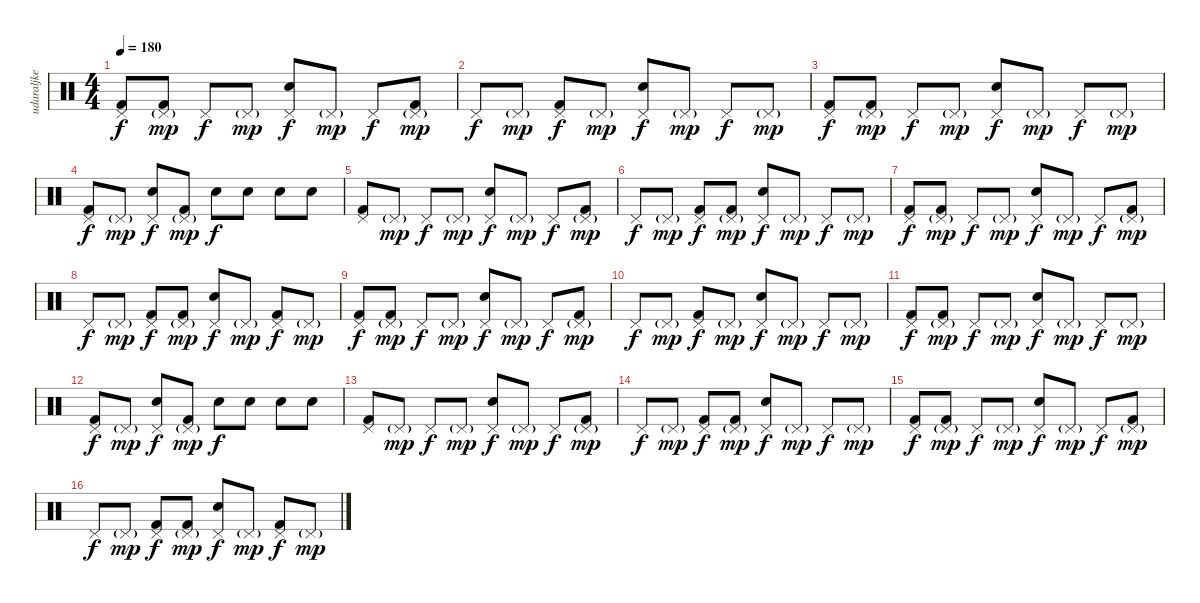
\track ("udaraljke" "udaraljke") {instrument percussion}
\staff {score}
\articulation defaults
\ts (4 4)
\tempo 180
\clef neutral
\ks c
("Pedal Hi-Hat (hit)" "Kick (hit) 2").8{dy f} ("Pedal Hi-Hat (hit)"{g} "Kick (hit) 2").8{dy mp} "Pedal Hi-Hat (hit)".8{dy f} "Pedal Hi-Hat (hit)"{g}.8{dy mp} ("Pedal Hi-Hat (hit)" "Snare (hit) 2").8{dy f} "Pedal Hi-Hat (hit)"{g}.8{dy mp} "Pedal Hi-Hat (hit)".8{dy f} ("Pedal Hi-Hat (hit)"{g} "Kick (hit) 2").8{dy mp} |
"Pedal Hi-Hat (hit)".8{dy f} "Pedal Hi-Hat (hit)"{g}.8{dy mp} ("Pedal Hi-Hat (hit)" "Kick (hit) 2").8{dy f} "Pedal Hi-Hat (hit)"{g}.8{dy mp} ("Pedal Hi-Hat (hit)" "Snare (hit) 2").8{dy f} "Pedal Hi-Hat (hit)"{g}.8{dy mp} "Pedal Hi-Hat (hit)".8{dy f} "Pedal Hi-Hat (hit)"{g}.8{dy mp} |
("Pedal Hi-Hat (hit)" "Kick (hit) 2").8{dy f} ("Pedal Hi-Hat (hit)"{g} "Kick (hit) 2").8{dy mp} "Pedal Hi-Hat (hit)".8{dy f} "Pedal Hi-Hat (hit)"{g}.8{dy mp} ("Pedal Hi-Hat (hit)" "Snare (hit) 2").8{dy f} "Pedal Hi-Hat (hit)"{g}.8{dy mp} "Pedal Hi-Hat (hit)".8{dy f} "Pedal Hi-Hat (hit)"{g}.8{dy mp} |
("Pedal Hi-Hat (hit)" "Kick (hit) 2").8{dy f} "Pedal Hi-Hat (hit)"{g}.8{dy mp} ("Pedal Hi-Hat (hit)" "Snare (hit) 2").8{dy f} ("Pedal Hi-Hat (hit)"{g} "Kick (hit) 2").8{dy mp} "Snare (hit) 2".8{dy f} "Snare (hit) 2".8 "Snare (hit) 2".8 "Snare (hit) 2".8 |
("Pedal Hi-Hat (hit)" "Kick (hit) 2").8 "Pedal Hi-Hat (hit)"{g}.8{dy mp} "Pedal Hi-Hat (hit)".8{dy f} "Pedal Hi-Hat (hit)"{g}.8{dy mp} ("Pedal Hi-Hat (hit)" "Snare (hit) 2").8{dy f} "Pedal Hi-Hat (hit)"{g}.8{dy mp} "Pedal Hi-Hat (hit)".8{dy f} ("Pedal Hi-Hat (hit)"{g} "Kick (hit) 2").8{dy mp} |
"Pedal Hi-Hat (hit)".8{dy f} "Pedal Hi-Hat (hit)"{g}.8{dy mp} ("Pedal Hi-Hat (hit)" "Kick (hit) 2").8{dy f} ("Pedal Hi-Hat (hit)"{g} "Kick (hit) 2").8{dy mp} ("Pedal Hi-Hat (hit)" "Snare (hit) 2").8{dy f} "Pedal Hi-Hat (hit)"{g}.8{dy mp} "Pedal Hi-Hat (hit)".8{dy f} "Pedal Hi-Hat (hit)"{g}.8{dy mp} |
("Pedal Hi-Hat (hit)" "Kick (hit) 2").8{dy f} ("Pedal Hi-Hat (hit)"{g} "Kick (hit) 2").8{dy mp} "Pedal Hi-Hat (hit)".8{dy f} "Pedal Hi-Hat (hit)"{g}.8{dy mp} ("Pedal Hi-Hat (hit)" "Snare (hit) 2").8{dy f} "Pedal Hi-Hat (hit)"{g}.8{dy mp} "Pedal Hi-Hat (hit)".8{dy f} ("Pedal Hi-Hat (hit)"{g} "Kick (hit) 2").8{dy mp} |
"Pedal Hi-Hat (hit)".8{dy f} "Pedal Hi-Hat (hit)"{g}.8{dy mp} ("Pedal Hi-Hat (hit)" "Kick (hit) 2").8{dy f} ("Pedal Hi-Hat (hit)"{g} "Kick (hit) 2").8{dy mp} ("Pedal Hi-Hat (hit)" "Snare (hit) 2").8{dy f} "Pedal Hi-Hat (hit)"{g}.8{dy mp} ("Pedal Hi-Hat (hit)" "Kick (hit) 2").8{dy f} "Pedal Hi-Hat (hit)"{g}.8{dy mp} |
("Pedal Hi-Hat (hit)" "Kick (hit) 2").8{dy f} ("Pedal Hi-Hat (hit)"{g} "Kick (hit) 2").8{dy mp} "Pedal Hi-Hat (hit)".8{dy f} "Pedal Hi-Hat (hit)"{g}.8{dy mp} ("Pedal Hi-Hat (hit)" "Snare (hit) 2").8{dy f} "Pedal Hi-Hat (hit)"{g}.8{dy mp} "Pedal Hi-Hat (hit)".8{dy f} ("Pedal Hi-Hat (hit)"{g} "Kick (hit) 2").8{dy mp} |
"Pedal Hi-Hat (hit)".8{dy f} "Pedal Hi-Hat (hit)"{g}.8{dy mp} ("Pedal Hi-Hat (hit)" "Kick (hit) 2").8{dy f} "Pedal Hi-Hat (hit)"{g}.8{dy mp} ("Pedal Hi-Hat (hit)" "Snare (hit) 2").8{dy f} "Pedal Hi-Hat (hit)"{g}.8{dy mp} "Pedal Hi-Hat (hit)".8{dy f} "Pedal Hi-Hat (hit)"{g}.8{dy mp} |
("Pedal Hi-Hat (hit)" "Kick (hit) 2").8{dy f} ("Pedal Hi-Hat (hit)"{g} "Kick (hit) 2").8{dy mp} "Pedal Hi-Hat (hit)".8{dy f} "Pedal Hi-Hat (hit)"{g}.8{dy mp} ("Pedal Hi-Hat (hit)" "Snare (hit) 2").8{dy f} "Pedal Hi-Hat (hit)"{g}.8{dy mp} "Pedal Hi-Hat (hit)".8{dy f} "Pedal Hi-Hat (hit)"{g}.8{dy mp} |
("Pedal Hi-Hat (hit)" "Kick (hit) 2").8{dy f} "Pedal Hi-Hat (hit)"{g}.8{dy mp} ("Pedal Hi-Hat (hit)" "Snare (hit) 2").8{dy f} ("Pedal Hi-Hat (hit)"{g} "Kick (hit) 2").8{dy mp} "Snare (hit) 2".8{dy f} "Snare (hit) 2".8 "Snare (hit) 2".8 "Snare (hit) 2".8 |
("Pedal Hi-Hat (hit)" "Kick (hit) 2").8 "Pedal Hi-Hat (hit)"{g}.8{dy mp} "Pedal Hi-Hat (hit)".8{dy f} "Pedal Hi-Hat (hit)"{g}.8{dy mp} ("Pedal Hi-Hat (hit)" "Snare (hit) 2").8{dy f} "Pedal Hi-Hat (hit)"{g}.8{dy mp} "Pedal Hi-Hat (hit)".8{dy f} ("Pedal Hi-Hat (hit)"{g} "Kick (hit) 2").8{dy mp} |
"Pedal Hi-Hat (hit)".8{dy f} "Pedal Hi-Hat (hit)"{g}.8{dy mp} ("Pedal Hi-Hat (hit)" "Kick (hit) 2").8{dy f} ("Pedal Hi-Hat (hit)"{g} "Kick (hit) 2").8{dy mp} ("Pedal Hi-Hat (hit)" "Snare (hit) 2").8{dy f} "Pedal Hi-Hat (hit)"{g}.8{dy mp} "Pedal Hi-Hat (hit)".8{dy f} "Pedal Hi-Hat (hit)"{g}.8{dy mp} |
("Pedal Hi-Hat (hit)" "Kick (hit) 2").8{dy f} ("Pedal Hi-Hat (hit)"{g} "Kick (hit) 2").8{dy mp} "Pedal Hi-Hat (hit)".8{dy f} "Pedal Hi-Hat (hit)"{g}.8{dy mp} ("Pedal Hi-Hat (hit)" "Snare (hit) 2").8{dy f} "Pedal Hi-Hat (hit)"{g}.8{dy mp} "Pedal Hi-Hat (hit)".8{dy f} ("Pedal Hi-Hat (hit)"{g} "Kick (hit) 2").8{dy mp} |
"Pedal Hi-Hat (hit)".8{dy f} "Pedal Hi-Hat (hit)"{g}.8{dy mp} ("Pedal Hi-Hat (hit)" "Kick (hit) 2").8{dy f} ("Pedal Hi-Hat (hit)"{g} "Kick (hit) 2").8{dy mp} ("Pedal Hi-Hat (hit)" "Snare (hit) 2").8{dy f} "Pedal Hi-Hat (hit)"{g}.8{dy mp} ("Pedal Hi-Hat (hit)" "Kick (hit) 2").8{dy f} "Pedal Hi-Hat (hit)"{g}.8{dy mp}
